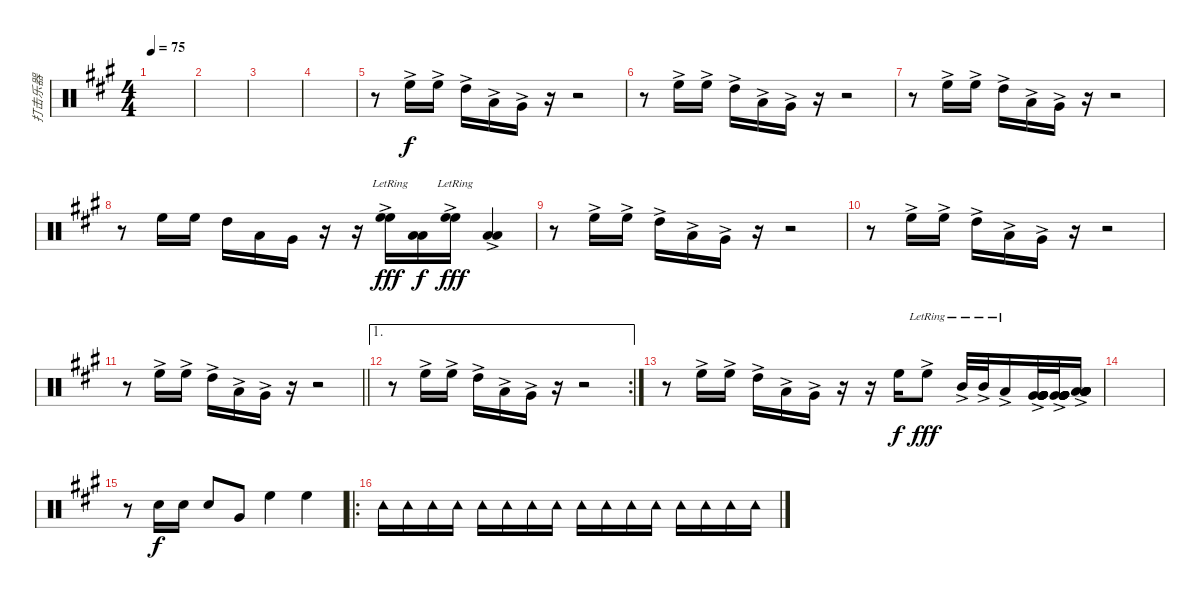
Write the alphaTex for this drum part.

\track ("打击乐器" "打击乐器") {instrument percussion}
\staff {score}
\articulation defaults
\ts (4 4)
\tempo 75
\clef neutral
\ks a
|
|
|
|
r.8 "High Floor Tom (hit)"{ac}.16 "High Floor Tom (hit)"{ac}.16 "High Tom (hit)"{ac}.16 "Low Tom (hit)"{ac}.16 "Very Low Tom (hit)"{ac}.16 r.16 r.2 |
r.8 "High Floor Tom (hit)"{ac}.16 "High Floor Tom (hit)"{ac}.16 "High Tom (hit)"{ac}.16 "Low Tom (hit)"{ac}.16 "Very Low Tom (hit)"{ac}.16 r.16 r.2 |
r.8 "High Floor Tom (hit)"{ac}.16 "High Floor Tom (hit)"{ac}.16 "High Tom (hit)"{ac}.16 "Low Tom (hit)"{ac}.16 "Very Low Tom (hit)"{ac}.16 r.16 r.2 |
r.8 "High Floor Tom (hit)".16{dy f} "High Floor Tom (hit)".16 "High Tom (hit)".16 "Low Tom (hit)".16 "Very Low Tom (hit)".16 r.16 r.16 ("High Floor Tom (hit)"{ac lr} "High Floor Tom (hit)"{lr}).16{dy fff} ("Low Tom (hit)" "Low Tom (hit)").16{dy f} ("High Floor Tom (hit)"{ac lr} "High Floor Tom (hit)"{ac lr}).16{dy fff} ("Low Tom (hit)"{ac} "Low Tom (hit)").4 |
r.8 "High Floor Tom (hit)"{ac}.16 "High Floor Tom (hit)"{ac}.16 "High Tom (hit)"{ac}.16 "Low Tom (hit)"{ac}.16 "Very Low Tom (hit)"{ac}.16 r.16 r.2 |
r.8 "High Floor Tom (hit)"{ac}.16 "High Floor Tom (hit)"{ac}.16 "High Tom (hit)"{ac}.16 "Low Tom (hit)"{ac}.16 "Very Low Tom (hit)"{ac}.16 r.16 r.2 |
\barLineRight lightlight
r.8 "High Floor Tom (hit)"{ac}.16 "High Floor Tom (hit)"{ac}.16 "High Tom (hit)"{ac}.16 "Low Tom (hit)"{ac}.16 "Very Low Tom (hit)"{ac}.16 r.16 r.2 |
\ae 1
\rc 2
r.8 "High Floor Tom (hit)"{ac}.16 "High Floor Tom (hit)"{ac}.16 "High Tom (hit)"{ac}.16 "Low Tom (hit)"{ac}.16 "Very Low Tom (hit)"{ac}.16 r.16 r.2 |
r.8 "High Floor Tom (hit)"{ac}.16 "High Floor Tom (hit)"{ac}.16 "High Tom (hit)"{ac}.16 "Low Tom (hit)"{ac}.16 "Very Low Tom (hit)"{ac}.16 r.16 r.16 "High Floor Tom (hit)".16{dy f} "High Floor Tom (hit)"{ac lr}.8{dy fff} "Mid Tom (hit)"{ac lr}.32 "Mid Tom (hit)"{ac lr}.32 "Low Tom (hit)"{ac lr}.16 ("Very Low Tom (hit)"{ac} "Very Low Tom (hit)" "Very Low Tom (hit)"{ac} "Very Low Tom (hit)" "Very Low Tom (hit)"{ac} "Very Low Tom (hit)"{ac}).32 ("Very Low Tom (hit)"{ac} "Very Low Tom (hit)"{ac} "Very Low Tom (hit)"{ac} "Very Low Tom (hit)" "Very Low Tom (hit)"{ac} "Very Low Tom (hit)"{ac}).32 ("Low Floor Tom (hit)"{ac} "Low Floor Tom (hit)"{ac} "Low Floor Tom (hit)"{ac} "Low Floor Tom (hit)" "Low Floor Tom (hit)"{ac} "Low Floor Tom (hit)"{ac}).16 |
|
r.8 "Snare (hit) 2".16{dy f} "Snare (hit) 2".16 "Snare (hit) 2".8 "Very Low Tom (hit)".8 "High Floor Tom (hit)".4 "High Floor Tom (hit)".4 |
\ro "Tambourine (hit)".16 "Tambourine (hit)".16 "Tambourine (hit)".16 "Tambourine (hit)".16 "Tambourine (hit)".16 "Tambourine (hit)".16 "Tambourine (hit)".16 "Tambourine (hit)".16 "Tambourine (hit)".16 "Tambourine (hit)".16 "Tambourine (hit)".16 "Tambourine (hit)".16 "Tambourine (hit)".16 "Tambourine (hit)".16 "Tambourine (hit)".16 "Tambourine (hit)".16
